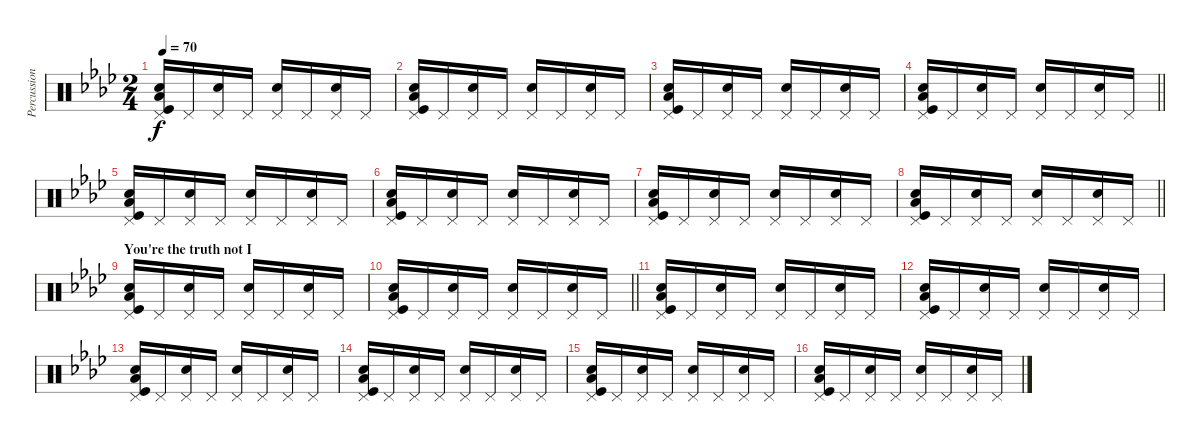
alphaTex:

\track ("Percussions" "Percussion") {instrument percussion}
\staff {score}
\articulation defaults
\ts (2 4)
\tempo 70
\clef neutral
\ks fminor
("Electric Snare (hit)" "Kick (hit)" "Pedal Hi-Hat (hit)" "Low Floor Tom (hit)").16{dy f} "Pedal Hi-Hat (hit)".16 ("Electric Snare (hit)" "Pedal Hi-Hat (hit)").16 "Pedal Hi-Hat (hit)".16 ("Electric Snare (hit)" "Pedal Hi-Hat (hit)").16 "Pedal Hi-Hat (hit)".16 ("Electric Snare (hit)" "Pedal Hi-Hat (hit)").16 "Pedal Hi-Hat (hit)".16 |
("Electric Snare (hit)" "Kick (hit)" "Pedal Hi-Hat (hit)" "Low Floor Tom (hit)").16 "Pedal Hi-Hat (hit)".16 ("Electric Snare (hit)" "Pedal Hi-Hat (hit)").16 "Pedal Hi-Hat (hit)".16 ("Electric Snare (hit)" "Pedal Hi-Hat (hit)").16 "Pedal Hi-Hat (hit)".16 ("Electric Snare (hit)" "Pedal Hi-Hat (hit)").16 "Pedal Hi-Hat (hit)".16 |
("Electric Snare (hit)" "Kick (hit)" "Pedal Hi-Hat (hit)" "Low Floor Tom (hit)").16 "Pedal Hi-Hat (hit)".16 ("Electric Snare (hit)" "Pedal Hi-Hat (hit)").16 "Pedal Hi-Hat (hit)".16 ("Electric Snare (hit)" "Pedal Hi-Hat (hit)").16 "Pedal Hi-Hat (hit)".16 ("Electric Snare (hit)" "Pedal Hi-Hat (hit)").16 "Pedal Hi-Hat (hit)".16 |
\barLineRight lightlight
("Electric Snare (hit)" "Kick (hit)" "Pedal Hi-Hat (hit)" "Low Floor Tom (hit)").16 "Pedal Hi-Hat (hit)".16 ("Electric Snare (hit)" "Pedal Hi-Hat (hit)").16 "Pedal Hi-Hat (hit)".16 ("Electric Snare (hit)" "Pedal Hi-Hat (hit)").16 "Pedal Hi-Hat (hit)".16 ("Electric Snare (hit)" "Pedal Hi-Hat (hit)").16 "Pedal Hi-Hat (hit)".16 |
("Electric Snare (hit)" "Kick (hit)" "Pedal Hi-Hat (hit)" "Low Floor Tom (hit)").16 "Pedal Hi-Hat (hit)".16 ("Electric Snare (hit)" "Pedal Hi-Hat (hit)").16 "Pedal Hi-Hat (hit)".16 ("Electric Snare (hit)" "Pedal Hi-Hat (hit)").16 "Pedal Hi-Hat (hit)".16 ("Electric Snare (hit)" "Pedal Hi-Hat (hit)").16 "Pedal Hi-Hat (hit)".16 |
("Electric Snare (hit)" "Kick (hit)" "Pedal Hi-Hat (hit)" "Low Floor Tom (hit)").16 "Pedal Hi-Hat (hit)".16 ("Electric Snare (hit)" "Pedal Hi-Hat (hit)").16 "Pedal Hi-Hat (hit)".16 ("Electric Snare (hit)" "Pedal Hi-Hat (hit)").16 "Pedal Hi-Hat (hit)".16 ("Electric Snare (hit)" "Pedal Hi-Hat (hit)").16 "Pedal Hi-Hat (hit)".16 |
("Electric Snare (hit)" "Kick (hit)" "Pedal Hi-Hat (hit)" "Low Floor Tom (hit)").16 "Pedal Hi-Hat (hit)".16 ("Electric Snare (hit)" "Pedal Hi-Hat (hit)").16 "Pedal Hi-Hat (hit)".16 ("Electric Snare (hit)" "Pedal Hi-Hat (hit)").16 "Pedal Hi-Hat (hit)".16 ("Electric Snare (hit)" "Pedal Hi-Hat (hit)").16 "Pedal Hi-Hat (hit)".16 |
\barLineRight lightlight
("Electric Snare (hit)" "Kick (hit)" "Pedal Hi-Hat (hit)" "Low Floor Tom (hit)").16 "Pedal Hi-Hat (hit)".16 ("Electric Snare (hit)" "Pedal Hi-Hat (hit)").16 "Pedal Hi-Hat (hit)".16 ("Electric Snare (hit)" "Pedal Hi-Hat (hit)").16 "Pedal Hi-Hat (hit)".16 ("Electric Snare (hit)" "Pedal Hi-Hat (hit)").16 "Pedal Hi-Hat (hit)".16 |
\section ("" "You're the truth not I")
("Electric Snare (hit)" "Kick (hit)" "Pedal Hi-Hat (hit)" "Low Floor Tom (hit)").16 "Pedal Hi-Hat (hit)".16 ("Electric Snare (hit)" "Pedal Hi-Hat (hit)").16 "Pedal Hi-Hat (hit)".16 ("Electric Snare (hit)" "Pedal Hi-Hat (hit)").16 "Pedal Hi-Hat (hit)".16 ("Electric Snare (hit)" "Pedal Hi-Hat (hit)").16 "Pedal Hi-Hat (hit)".16 |
\barLineRight lightlight
("Electric Snare (hit)" "Kick (hit)" "Pedal Hi-Hat (hit)" "Low Floor Tom (hit)").16 "Pedal Hi-Hat (hit)".16 ("Electric Snare (hit)" "Pedal Hi-Hat (hit)").16 "Pedal Hi-Hat (hit)".16 ("Electric Snare (hit)" "Pedal Hi-Hat (hit)").16 "Pedal Hi-Hat (hit)".16 ("Electric Snare (hit)" "Pedal Hi-Hat (hit)").16 "Pedal Hi-Hat (hit)".16 |
("Electric Snare (hit)" "Kick (hit)" "Pedal Hi-Hat (hit)" "Low Floor Tom (hit)").16 "Pedal Hi-Hat (hit)".16 ("Electric Snare (hit)" "Pedal Hi-Hat (hit)").16 "Pedal Hi-Hat (hit)".16 ("Electric Snare (hit)" "Pedal Hi-Hat (hit)").16 "Pedal Hi-Hat (hit)".16 ("Electric Snare (hit)" "Pedal Hi-Hat (hit)").16 "Pedal Hi-Hat (hit)".16 |
("Electric Snare (hit)" "Kick (hit)" "Pedal Hi-Hat (hit)" "Low Floor Tom (hit)").16 "Pedal Hi-Hat (hit)".16 ("Electric Snare (hit)" "Pedal Hi-Hat (hit)").16 "Pedal Hi-Hat (hit)".16 ("Electric Snare (hit)" "Pedal Hi-Hat (hit)").16 "Pedal Hi-Hat (hit)".16 ("Electric Snare (hit)" "Pedal Hi-Hat (hit)").16 "Pedal Hi-Hat (hit)".16 |
("Electric Snare (hit)" "Kick (hit)" "Pedal Hi-Hat (hit)" "Low Floor Tom (hit)").16 "Pedal Hi-Hat (hit)".16 ("Electric Snare (hit)" "Pedal Hi-Hat (hit)").16 "Pedal Hi-Hat (hit)".16 ("Electric Snare (hit)" "Pedal Hi-Hat (hit)").16 "Pedal Hi-Hat (hit)".16 ("Electric Snare (hit)" "Pedal Hi-Hat (hit)").16 "Pedal Hi-Hat (hit)".16 |
("Electric Snare (hit)" "Kick (hit)" "Pedal Hi-Hat (hit)" "Low Floor Tom (hit)").16 "Pedal Hi-Hat (hit)".16 ("Electric Snare (hit)" "Pedal Hi-Hat (hit)").16 "Pedal Hi-Hat (hit)".16 ("Electric Snare (hit)" "Pedal Hi-Hat (hit)").16 "Pedal Hi-Hat (hit)".16 ("Electric Snare (hit)" "Pedal Hi-Hat (hit)").16 "Pedal Hi-Hat (hit)".16 |
("Electric Snare (hit)" "Kick (hit)" "Pedal Hi-Hat (hit)" "Low Floor Tom (hit)").16 "Pedal Hi-Hat (hit)".16 ("Electric Snare (hit)" "Pedal Hi-Hat (hit)").16 "Pedal Hi-Hat (hit)".16 ("Electric Snare (hit)" "Pedal Hi-Hat (hit)").16 "Pedal Hi-Hat (hit)".16 ("Electric Snare (hit)" "Pedal Hi-Hat (hit)").16 "Pedal Hi-Hat (hit)".16 |
("Electric Snare (hit)" "Kick (hit)" "Pedal Hi-Hat (hit)" "Low Floor Tom (hit)").16 "Pedal Hi-Hat (hit)".16 ("Electric Snare (hit)" "Pedal Hi-Hat (hit)").16 "Pedal Hi-Hat (hit)".16 ("Electric Snare (hit)" "Pedal Hi-Hat (hit)").16 "Pedal Hi-Hat (hit)".16 ("Electric Snare (hit)" "Pedal Hi-Hat (hit)").16 "Pedal Hi-Hat (hit)".16
